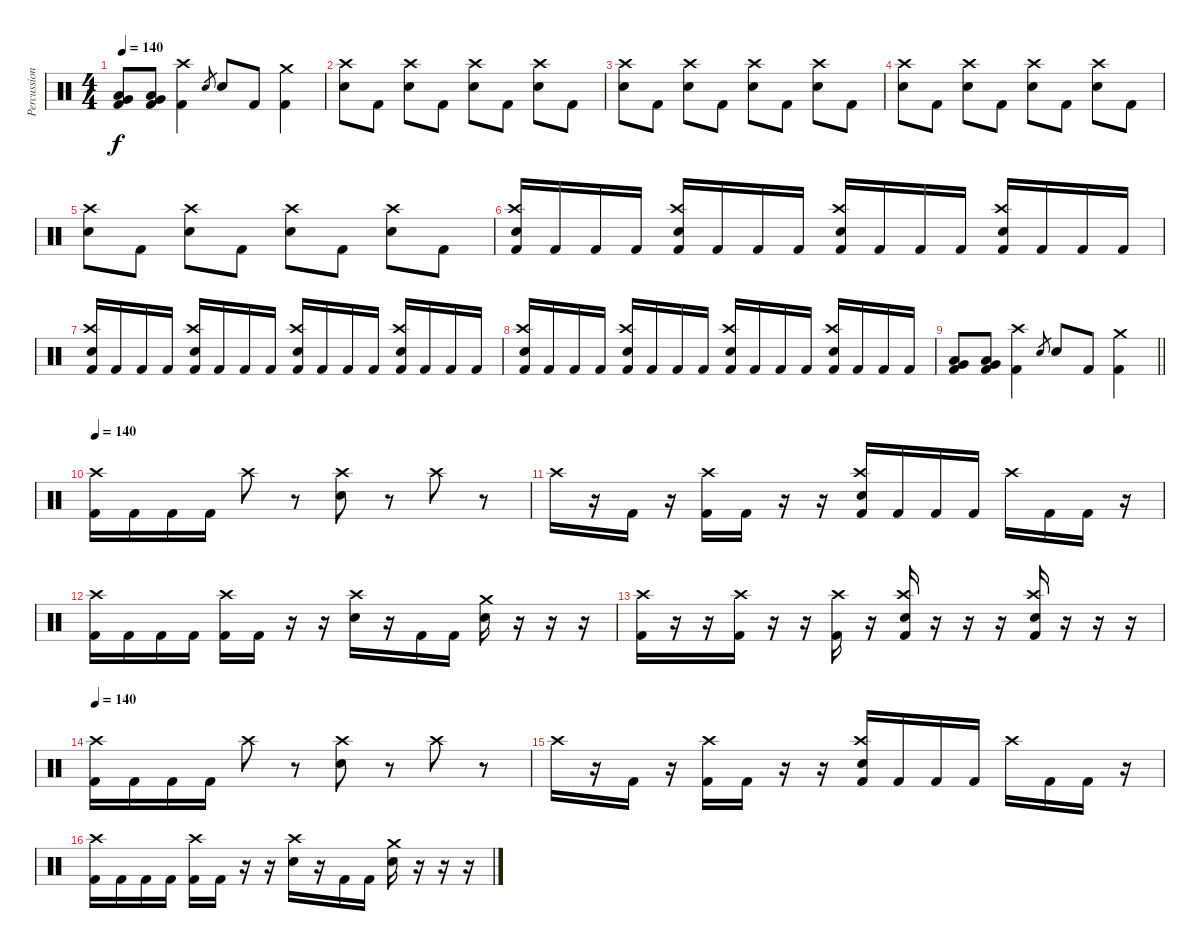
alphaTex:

\track ("Percussion" "Percussion") {instrument percussion}
\staff {score}
\articulation defaults
\ts (4 4)
\tempo 140
\clef neutral
\ks c
("Low Tom (hit)" "Very Low Tom (hit)" "Kick (hit) 2").8{dy f} ("Low Tom (hit)" "Very Low Tom (hit)" "Kick (hit) 2").8 ("Crash high (hit)" "Kick (hit) 2").4 "Snare (hit) 2".8{gr} "Snare (hit) 2".8 "Kick (hit) 2".8 ("Crash medium (hit)" "Kick (hit) 2").4 |
("Crash high (hit)" "Snare (hit) 2").8 "Kick (hit) 2".8 ("Crash high (hit)" "Snare (hit) 2").8 "Kick (hit) 2".8 ("Crash high (hit)" "Snare (hit) 2").8 "Kick (hit) 2".8 ("Crash high (hit)" "Snare (hit) 2").8 "Kick (hit) 2".8 |
("Crash high (hit)" "Snare (hit) 2").8 "Kick (hit) 2".8 ("Crash high (hit)" "Snare (hit) 2").8 "Kick (hit) 2".8 ("Crash high (hit)" "Snare (hit) 2").8 "Kick (hit) 2".8 ("Crash high (hit)" "Snare (hit) 2").8 "Kick (hit) 2".8 |
("Crash high (hit)" "Snare (hit) 2").8 "Kick (hit) 2".8 ("Crash high (hit)" "Snare (hit) 2").8 "Kick (hit) 2".8 ("Crash high (hit)" "Snare (hit) 2").8 "Kick (hit) 2".8 ("Crash high (hit)" "Snare (hit) 2").8 "Kick (hit) 2".8 |
("Crash high (hit)" "Snare (hit) 2").8 "Kick (hit) 2".8 ("Crash high (hit)" "Snare (hit) 2").8 "Kick (hit) 2".8 ("Crash high (hit)" "Snare (hit) 2").8 "Kick (hit) 2".8 ("Crash high (hit)" "Snare (hit) 2").8 "Kick (hit) 2".8 |
("Crash high (hit)" "Snare (hit) 2" "Kick (hit) 2").16 "Kick (hit) 2".16 "Kick (hit) 2".16 "Kick (hit) 2".16 ("Crash high (hit)" "Snare (hit) 2" "Kick (hit) 2").16 "Kick (hit) 2".16 "Kick (hit) 2".16 "Kick (hit) 2".16 ("Crash high (hit)" "Snare (hit) 2" "Kick (hit) 2").16 "Kick (hit) 2".16 "Kick (hit) 2".16 "Kick (hit) 2".16 ("Crash high (hit)" "Snare (hit) 2" "Kick (hit) 2").16 "Kick (hit) 2".16 "Kick (hit) 2".16 "Kick (hit) 2".16 |
("Crash high (hit)" "Snare (hit) 2" "Kick (hit) 2").16 "Kick (hit) 2".16 "Kick (hit) 2".16 "Kick (hit) 2".16 ("Crash high (hit)" "Snare (hit) 2" "Kick (hit) 2").16 "Kick (hit) 2".16 "Kick (hit) 2".16 "Kick (hit) 2".16 ("Crash high (hit)" "Snare (hit) 2" "Kick (hit) 2").16 "Kick (hit) 2".16 "Kick (hit) 2".16 "Kick (hit) 2".16 ("Crash high (hit)" "Snare (hit) 2" "Kick (hit) 2").16 "Kick (hit) 2".16 "Kick (hit) 2".16 "Kick (hit) 2".16 |
("Crash high (hit)" "Snare (hit) 2" "Kick (hit) 2").16 "Kick (hit) 2".16 "Kick (hit) 2".16 "Kick (hit) 2".16 ("Crash high (hit)" "Snare (hit) 2" "Kick (hit) 2").16 "Kick (hit) 2".16 "Kick (hit) 2".16 "Kick (hit) 2".16 ("Crash high (hit)" "Snare (hit) 2" "Kick (hit) 2").16 "Kick (hit) 2".16 "Kick (hit) 2".16 "Kick (hit) 2".16 ("Crash high (hit)" "Snare (hit) 2" "Kick (hit) 2").16 "Kick (hit) 2".16 "Kick (hit) 2".16 "Kick (hit) 2".16 |
\barLineRight lightlight
("Low Tom (hit)" "Very Low Tom (hit)" "Kick (hit) 2").8 ("Low Tom (hit)" "Very Low Tom (hit)" "Kick (hit) 2").8 ("Crash high (hit)" "Kick (hit) 2").4 "Snare (hit) 2".8{gr} "Snare (hit) 2".8 "Kick (hit) 2".8 ("Crash medium (hit)" "Kick (hit) 2").4 |
\tempo 140
("Crash high (hit)" "Kick (hit) 2").16 "Kick (hit) 2".16 "Kick (hit) 2".16 "Kick (hit) 2".16 "Crash high (hit)".8 r.8 ("Crash high (hit)" "Snare (hit) 2").8 r.8 "Crash high (hit)".8 r.8 |
"Crash high (hit)".16 r.16 "Kick (hit) 2".16 r.16 ("Crash high (hit)" "Kick (hit) 2").16 "Kick (hit) 2".16 r.16 r.16 ("Crash high (hit)" "Snare (hit) 2" "Kick (hit) 2").16 "Kick (hit) 2".16 "Kick (hit) 2".16 "Kick (hit) 2".16 "Crash high (hit)".16 "Kick (hit) 2".16 "Kick (hit) 2".16 r.16 |
("Crash high (hit)" "Kick (hit) 2").16 "Kick (hit) 2".16 "Kick (hit) 2".16 "Kick (hit) 2".16 ("Crash high (hit)" "Kick (hit) 2").16 "Kick (hit) 2".16 r.16 r.16 ("Crash high (hit)" "Snare (hit) 2").16 r.16 "Kick (hit) 2".16 "Kick (hit) 2".16 ("Crash medium (hit)" "Snare (hit) 2").16 r.16 r.16 r.16 |
("Crash high (hit)" "Kick (hit) 2").16 r.16 r.16 ("Crash high (hit)" "Kick (hit) 2").16 r.16 r.16 ("Crash high (hit)" "Kick (hit) 2").16 r.16 ("Crash high (hit)" "Snare (hit) 2" "Kick (hit) 2").16 r.16 r.16 r.16 ("Crash high (hit)" "Snare (hit) 2" "Kick (hit) 2").16 r.16 r.16 r.16 |
\tempo 140
("Crash high (hit)" "Kick (hit) 2").16 "Kick (hit) 2".16 "Kick (hit) 2".16 "Kick (hit) 2".16 "Crash high (hit)".8 r.8 ("Crash high (hit)" "Snare (hit) 2").8 r.8 "Crash high (hit)".8 r.8 |
"Crash high (hit)".16 r.16 "Kick (hit) 2".16 r.16 ("Crash high (hit)" "Kick (hit) 2").16 "Kick (hit) 2".16 r.16 r.16 ("Crash high (hit)" "Snare (hit) 2" "Kick (hit) 2").16 "Kick (hit) 2".16 "Kick (hit) 2".16 "Kick (hit) 2".16 "Crash high (hit)".16 "Kick (hit) 2".16 "Kick (hit) 2".16 r.16 |
("Crash high (hit)" "Kick (hit) 2").16 "Kick (hit) 2".16 "Kick (hit) 2".16 "Kick (hit) 2".16 ("Crash high (hit)" "Kick (hit) 2").16 "Kick (hit) 2".16 r.16 r.16 ("Crash high (hit)" "Snare (hit) 2").16 r.16 "Kick (hit) 2".16 "Kick (hit) 2".16 ("Crash medium (hit)" "Snare (hit) 2").16 r.16 r.16 r.16
